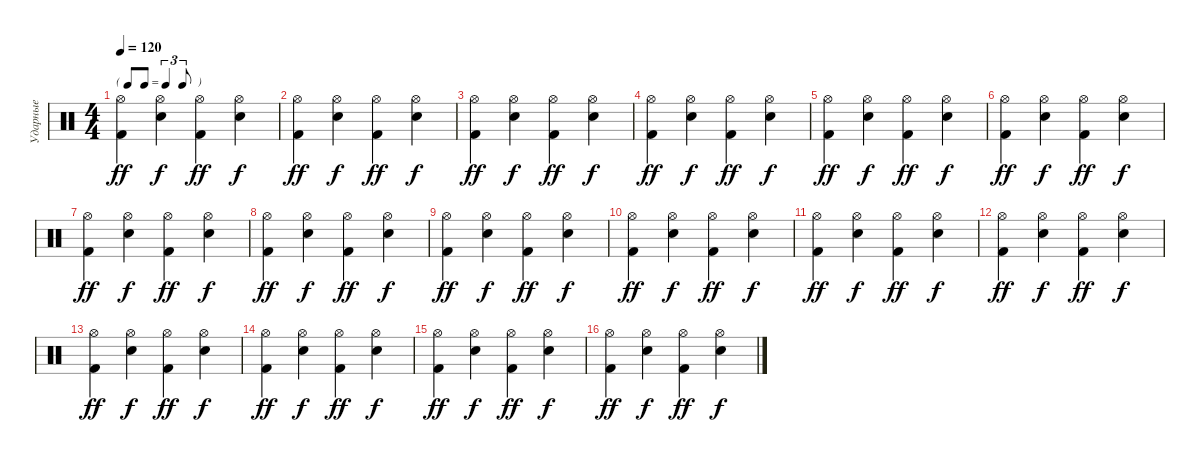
\track ("Ударные" "Ударные") {instrument percussion}
\staff {score}
\articulation defaults
\ts (4 4)
\tf triplet8th
\tempo 120
\clef neutral
\ks c
("Hi-Hat (open)" "Kick (hit) 2").4{dy ff} ("Hi-Hat (open)" "Snare (hit) 2").4{dy f} ("Hi-Hat (open)" "Kick (hit) 2").4{dy ff} ("Hi-Hat (open)" "Snare (hit) 2").4{dy f} |
("Hi-Hat (open)" "Kick (hit) 2").4{dy ff} ("Hi-Hat (open)" "Snare (hit) 2").4{dy f} ("Hi-Hat (open)" "Kick (hit) 2").4{dy ff} ("Hi-Hat (open)" "Snare (hit) 2").4{dy f} |
("Hi-Hat (open)" "Kick (hit) 2").4{dy ff} ("Hi-Hat (open)" "Snare (hit) 2").4{dy f} ("Hi-Hat (open)" "Kick (hit) 2").4{dy ff} ("Hi-Hat (open)" "Snare (hit) 2").4{dy f} |
("Hi-Hat (open)" "Kick (hit) 2").4{dy ff} ("Hi-Hat (open)" "Snare (hit) 2").4{dy f} ("Hi-Hat (open)" "Kick (hit) 2").4{dy ff} ("Hi-Hat (open)" "Snare (hit) 2").4{dy f} |
("Hi-Hat (open)" "Kick (hit) 2").4{dy ff} ("Hi-Hat (open)" "Snare (hit) 2").4{dy f} ("Hi-Hat (open)" "Kick (hit) 2").4{dy ff} ("Hi-Hat (open)" "Snare (hit) 2").4{dy f} |
("Hi-Hat (open)" "Kick (hit) 2").4{dy ff} ("Hi-Hat (open)" "Snare (hit) 2").4{dy f} ("Hi-Hat (open)" "Kick (hit) 2").4{dy ff} ("Hi-Hat (open)" "Snare (hit) 2").4{dy f} |
("Hi-Hat (open)" "Kick (hit) 2").4{dy ff} ("Hi-Hat (open)" "Snare (hit) 2").4{dy f} ("Hi-Hat (open)" "Kick (hit) 2").4{dy ff} ("Hi-Hat (open)" "Snare (hit) 2").4{dy f} |
("Hi-Hat (open)" "Kick (hit) 2").4{dy ff} ("Hi-Hat (open)" "Snare (hit) 2").4{dy f} ("Hi-Hat (open)" "Kick (hit) 2").4{dy ff} ("Hi-Hat (open)" "Snare (hit) 2").4{dy f} |
("Hi-Hat (open)" "Kick (hit) 2").4{dy ff} ("Hi-Hat (open)" "Snare (hit) 2").4{dy f} ("Hi-Hat (open)" "Kick (hit) 2").4{dy ff} ("Hi-Hat (open)" "Snare (hit) 2").4{dy f} |
("Hi-Hat (open)" "Kick (hit) 2").4{dy ff} ("Hi-Hat (open)" "Snare (hit) 2").4{dy f} ("Hi-Hat (open)" "Kick (hit) 2").4{dy ff} ("Hi-Hat (open)" "Snare (hit) 2").4{dy f} |
("Hi-Hat (open)" "Kick (hit) 2").4{dy ff} ("Hi-Hat (open)" "Snare (hit) 2").4{dy f} ("Hi-Hat (open)" "Kick (hit) 2").4{dy ff} ("Hi-Hat (open)" "Snare (hit) 2").4{dy f} |
("Hi-Hat (open)" "Kick (hit) 2").4{dy ff} ("Hi-Hat (open)" "Snare (hit) 2").4{dy f} ("Hi-Hat (open)" "Kick (hit) 2").4{dy ff} ("Hi-Hat (open)" "Snare (hit) 2").4{dy f} |
("Hi-Hat (open)" "Kick (hit) 2").4{dy ff} ("Hi-Hat (open)" "Snare (hit) 2").4{dy f} ("Hi-Hat (open)" "Kick (hit) 2").4{dy ff} ("Hi-Hat (open)" "Snare (hit) 2").4{dy f} |
("Hi-Hat (open)" "Kick (hit) 2").4{dy ff} ("Hi-Hat (open)" "Snare (hit) 2").4{dy f} ("Hi-Hat (open)" "Kick (hit) 2").4{dy ff} ("Hi-Hat (open)" "Snare (hit) 2").4{dy f} |
("Hi-Hat (open)" "Kick (hit) 2").4{dy ff} ("Hi-Hat (open)" "Snare (hit) 2").4{dy f} ("Hi-Hat (open)" "Kick (hit) 2").4{dy ff} ("Hi-Hat (open)" "Snare (hit) 2").4{dy f} |
("Hi-Hat (open)" "Kick (hit) 2").4{dy ff} ("Hi-Hat (open)" "Snare (hit) 2").4{dy f} ("Hi-Hat (open)" "Kick (hit) 2").4{dy ff} ("Hi-Hat (open)" "Snare (hit) 2").4{dy f}
